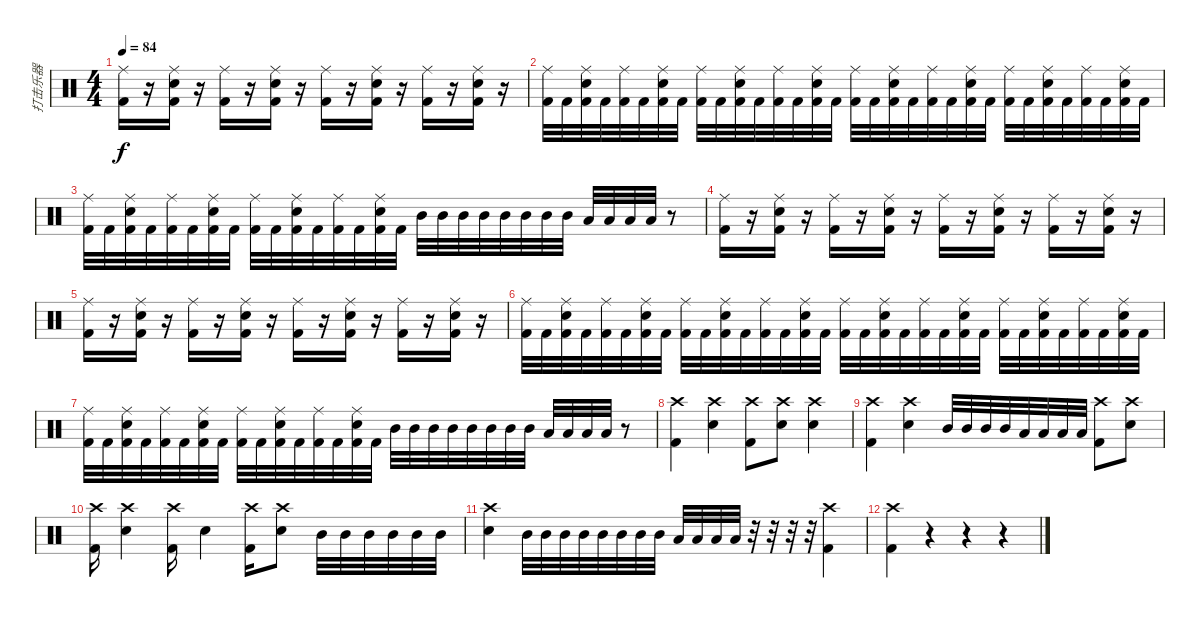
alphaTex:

\track ("打击乐器" "打击乐器") {instrument percussion}
\staff {score}
\articulation defaults
\ts (4 4)
\tempo 84
\clef neutral
\ks c
("Ride (middle)" "Kick (hit) 2").16{dy f} r.16 ("Ride (middle)" "Snare (hit) 2" "Kick (hit) 2").16 r.16 ("Ride (middle)" "Kick (hit) 2").16 r.16 ("Ride (middle)" "Snare (hit) 2" "Kick (hit) 2").16 r.16 ("Ride (middle)" "Kick (hit) 2").16 r.16 ("Ride (middle)" "Snare (hit) 2" "Kick (hit) 2").16 r.16 ("Ride (middle)" "Kick (hit) 2").16 r.16 ("Ride (middle)" "Snare (hit) 2" "Kick (hit) 2").16 r.16 |
("Ride (middle)" "Kick (hit) 2").32 "Kick (hit) 2".32 ("Ride (middle)" "Snare (hit) 2" "Kick (hit) 2").32 "Kick (hit) 2".32 ("Ride (middle)" "Kick (hit) 2").32 "Kick (hit) 2".32 ("Ride (middle)" "Snare (hit) 2" "Kick (hit) 2").32 "Kick (hit) 2".32 ("Ride (middle)" "Kick (hit) 2").32 "Kick (hit) 2".32 ("Ride (middle)" "Snare (hit) 2" "Kick (hit) 2").32 "Kick (hit) 2".32 ("Ride (middle)" "Kick (hit) 2").32 "Kick (hit) 2".32 ("Ride (middle)" "Snare (hit) 2" "Kick (hit) 2").32 "Kick (hit) 2".32 ("Ride (middle)" "Kick (hit) 2").32 "Kick (hit) 2".32 ("Ride (middle)" "Snare (hit) 2" "Kick (hit) 2").32 "Kick (hit) 2".32 ("Ride (middle)" "Kick (hit) 2").32 "Kick (hit) 2".32 ("Ride (middle)" "Snare (hit) 2" "Kick (hit) 2").32 "Kick (hit) 2".32 ("Ride (middle)" "Kick (hit) 2").32 "Kick (hit) 2".32 ("Ride (middle)" "Snare (hit) 2" "Kick (hit) 2").32 "Kick (hit) 2".32 ("Ride (middle)" "Kick (hit) 2").32 "Kick (hit) 2".32 ("Ride (middle)" "Snare (hit) 2" "Kick (hit) 2").32 "Kick (hit) 2".32 |
("Ride (middle)" "Kick (hit) 2").32 "Kick (hit) 2".32 ("Ride (middle)" "Snare (hit) 2" "Kick (hit) 2").32 "Kick (hit) 2".32 ("Ride (middle)" "Kick (hit) 2").32 "Kick (hit) 2".32 ("Ride (middle)" "Snare (hit) 2" "Kick (hit) 2").32 "Kick (hit) 2".32 ("Ride (middle)" "Kick (hit) 2").32 "Kick (hit) 2".32 ("Ride (middle)" "Snare (hit) 2" "Kick (hit) 2").32 "Kick (hit) 2".32 ("Ride (middle)" "Kick (hit) 2").32 "Kick (hit) 2".32 ("Ride (middle)" "Snare (hit) 2" "Kick (hit) 2").32 "Kick (hit) 2".32 "Mid Tom (hit)".32 "Mid Tom (hit)".32 "Mid Tom (hit)".32 "Mid Tom (hit)".32 "Mid Tom (hit)".32 "Mid Tom (hit)".32 "Mid Tom (hit)".32 "Mid Tom (hit)".32 "Low Tom (hit)".32 "Low Tom (hit)".32 "Low Tom (hit)".32 "Low Tom (hit)".32 r.8 |
("Ride (middle)" "Kick (hit) 2").16 r.16 ("Ride (middle)" "Snare (hit) 2" "Kick (hit) 2").16 r.16 ("Ride (middle)" "Kick (hit) 2").16 r.16 ("Ride (middle)" "Snare (hit) 2" "Kick (hit) 2").16 r.16 ("Ride (middle)" "Kick (hit) 2").16 r.16 ("Ride (middle)" "Snare (hit) 2" "Kick (hit) 2").16 r.16 ("Ride (middle)" "Kick (hit) 2").16 r.16 ("Ride (middle)" "Snare (hit) 2" "Kick (hit) 2").16 r.16 |
("Ride (middle)" "Kick (hit) 2").16 r.16 ("Ride (middle)" "Snare (hit) 2" "Kick (hit) 2").16 r.16 ("Ride (middle)" "Kick (hit) 2").16 r.16 ("Ride (middle)" "Snare (hit) 2" "Kick (hit) 2").16 r.16 ("Ride (middle)" "Kick (hit) 2").16 r.16 ("Ride (middle)" "Snare (hit) 2" "Kick (hit) 2").16 r.16 ("Ride (middle)" "Kick (hit) 2").16 r.16 ("Ride (middle)" "Snare (hit) 2" "Kick (hit) 2").16 r.16 |
("Ride (middle)" "Kick (hit) 2").32 "Kick (hit) 2".32 ("Ride (middle)" "Snare (hit) 2" "Kick (hit) 2").32 "Kick (hit) 2".32 ("Ride (middle)" "Kick (hit) 2").32 "Kick (hit) 2".32 ("Ride (middle)" "Snare (hit) 2" "Kick (hit) 2").32 "Kick (hit) 2".32 ("Ride (middle)" "Kick (hit) 2").32 "Kick (hit) 2".32 ("Ride (middle)" "Snare (hit) 2" "Kick (hit) 2").32 "Kick (hit) 2".32 ("Ride (middle)" "Kick (hit) 2").32 "Kick (hit) 2".32 ("Ride (middle)" "Snare (hit) 2" "Kick (hit) 2").32 "Kick (hit) 2".32 ("Ride (middle)" "Kick (hit) 2").32 "Kick (hit) 2".32 ("Ride (middle)" "Snare (hit) 2" "Kick (hit) 2").32 "Kick (hit) 2".32 ("Ride (middle)" "Kick (hit) 2").32 "Kick (hit) 2".32 ("Ride (middle)" "Snare (hit) 2" "Kick (hit) 2").32 "Kick (hit) 2".32 ("Ride (middle)" "Kick (hit) 2").32 "Kick (hit) 2".32 ("Ride (middle)" "Snare (hit) 2" "Kick (hit) 2").32 "Kick (hit) 2".32 ("Ride (middle)" "Kick (hit) 2").32 "Kick (hit) 2".32 ("Ride (middle)" "Snare (hit) 2" "Kick (hit) 2").32 "Kick (hit) 2".32 |
("Ride (middle)" "Kick (hit) 2").32 "Kick (hit) 2".32 ("Ride (middle)" "Snare (hit) 2" "Kick (hit) 2").32 "Kick (hit) 2".32 ("Ride (middle)" "Kick (hit) 2").32 "Kick (hit) 2".32 ("Ride (middle)" "Snare (hit) 2" "Kick (hit) 2").32 "Kick (hit) 2".32 ("Ride (middle)" "Kick (hit) 2").32 "Kick (hit) 2".32 ("Ride (middle)" "Snare (hit) 2" "Kick (hit) 2").32 "Kick (hit) 2".32 ("Ride (middle)" "Kick (hit) 2").32 "Kick (hit) 2".32 ("Ride (middle)" "Snare (hit) 2" "Kick (hit) 2").32 "Kick (hit) 2".32 "Mid Tom (hit)".32 "Mid Tom (hit)".32 "Mid Tom (hit)".32 "Mid Tom (hit)".32 "Mid Tom (hit)".32 "Mid Tom (hit)".32 "Mid Tom (hit)".32 "Mid Tom (hit)".32 "Low Tom (hit)".32 "Low Tom (hit)".32 "Low Tom (hit)".32 "Low Tom (hit)".32 r.8 |
("Crash high (hit)" "Kick (hit) 2").4 ("Crash high (hit)" "Snare (hit) 2").4 ("Crash high (hit)" "Kick (hit) 2").8 ("Crash high (hit)" "Snare (hit) 2").8 ("Crash high (hit)" "Snare (hit) 2").4 |
("Crash high (hit)" "Kick (hit) 2").4 ("Crash high (hit)" "Snare (hit) 2").4 "Mid Tom (hit)".32 "Mid Tom (hit)".32 "Mid Tom (hit)".32 "Mid Tom (hit)".32 "Low Tom (hit)".32 "Low Tom (hit)".32 "Low Tom (hit)".32 "Low Tom (hit)".32 ("Crash high (hit)" "Kick (hit) 2").8 ("Crash high (hit)" "Snare (hit) 2").8 |
("Crash high (hit)" "Kick (hit) 2").16 ("Crash high (hit)" "Snare (hit) 2").4 ("Crash high (hit)" "Kick (hit) 2").16 "Snare (hit) 2".4 ("Crash high (hit)" "Kick (hit) 2").16 ("Crash high (hit)" "Snare (hit) 2").8 "Mid Tom (hit)".32 "Mid Tom (hit)".32 "Mid Tom (hit)".32 "Mid Tom (hit)".32 "Mid Tom (hit)".32 "Mid Tom (hit)".32 |
("Crash high (hit)" "Snare (hit) 2").4 "Mid Tom (hit)".32 "Mid Tom (hit)".32 "Mid Tom (hit)".32 "Mid Tom (hit)".32 "Mid Tom (hit)".32 "Mid Tom (hit)".32 "Mid Tom (hit)".32 "Mid Tom (hit)".32 "Low Tom (hit)".32 "Low Tom (hit)".32 "Low Tom (hit)".32 "Low Tom (hit)".32 r.32 r.32 r.32 r.32 ("Crash high (hit)" "Kick (hit) 2").4 |
("Crash high (hit)" "Kick (hit) 2").4 r.4 r.4 r.4
